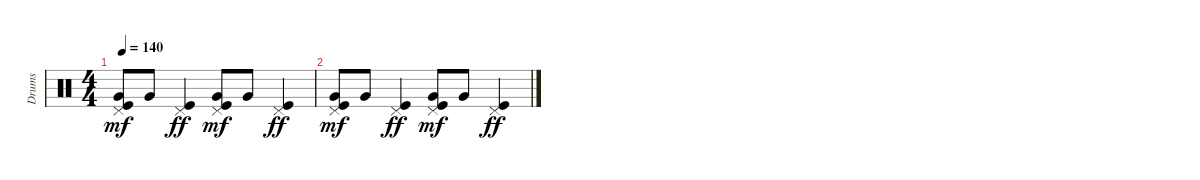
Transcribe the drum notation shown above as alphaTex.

\track ("Drums" "Drums") {instrument percussion}
\staff {score}
\articulation defaults
\ts (4 4)
\tempo 140
\clef neutral
\ks c
("Pedal Hi-Hat (hit)" "Kick (hit)" "Very Low Tom (hit)").8{dy mf} "Very Low Tom (hit)".8 ("Pedal Hi-Hat (hit)" "Kick (hit)").4{dy ff} ("Pedal Hi-Hat (hit)" "Kick (hit)" "Very Low Tom (hit)").8{dy mf} "Very Low Tom (hit)".8 ("Pedal Hi-Hat (hit)" "Kick (hit)").4{dy ff} |
("Pedal Hi-Hat (hit)" "Kick (hit)" "Very Low Tom (hit)").8{dy mf} "Very Low Tom (hit)".8 ("Pedal Hi-Hat (hit)" "Kick (hit)").4{dy ff} ("Pedal Hi-Hat (hit)" "Kick (hit)" "Very Low Tom (hit)").8{dy mf} "Very Low Tom (hit)".8 ("Pedal Hi-Hat (hit)" "Kick (hit)").4{dy ff}
